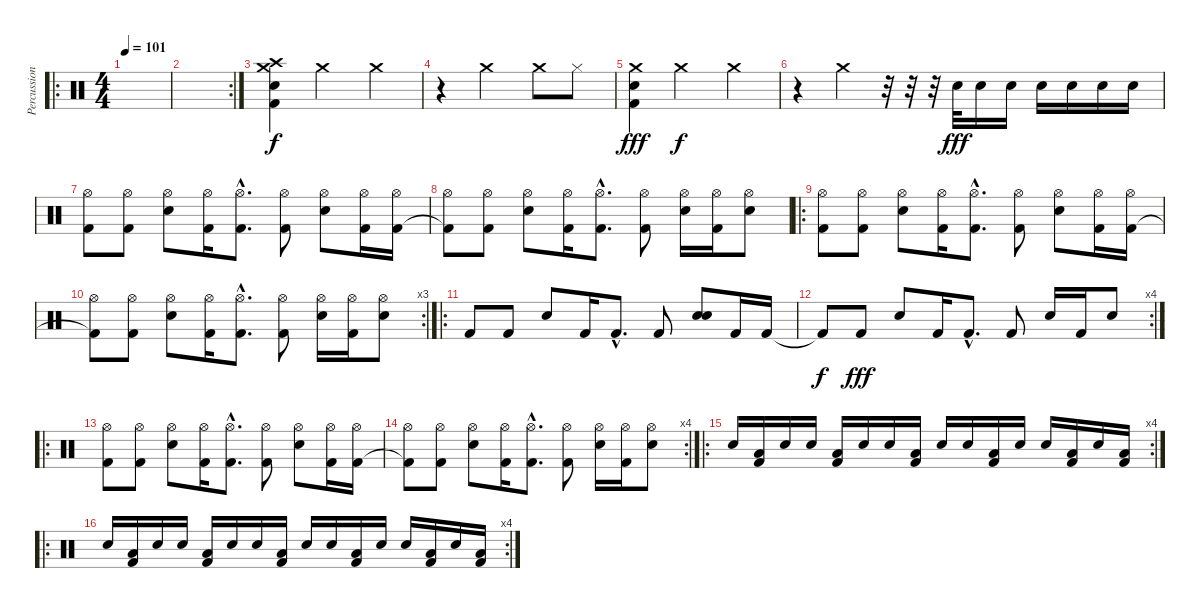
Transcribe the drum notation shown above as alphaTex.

\track ("Percussion" "Percussion") {instrument percussion}
\staff {score}
\articulation defaults
\ro
\ts (4 4)
\tempo 101
\clef neutral
\ks c
|
\rc 2
|
("Crash high (hit)" "Crash medium (hit)" "Snare (hit) 2" "Kick (hit) 2").4 "Crash medium (hit)".2{dy f} "Crash medium (hit)".4 |
r.4 "Crash medium (hit)".2 "Crash medium (hit)".8 "Hi-Hat (closed)".8 |
("Crash medium (hit)" "Snare (hit) 2" "Kick (hit) 2").4{dy fff} "Crash medium (hit)".2{dy f} "Crash medium (hit)".4 |
r.4 "Crash medium (hit)".4 r.32 r.32 r.32 "Snare (hit) 2".32{dy fff} "Snare (hit) 2".16 "Snare (hit) 2".16 "Snare (hit) 2".16 "Snare (hit) 2".16 "Snare (hit) 2".16 "Snare (hit) 2".16 |
("Hi-Hat (open)" "Kick (hit) 2").8 ("Hi-Hat (open)" "Kick (hit) 2").8 ("Hi-Hat (open)" "Snare (hit) 2").8 ("Hi-Hat (open)" "Kick (hit) 2").16 ("Hi-Hat (open)"{hac} "Kick (hit) 2"{hac}).8{d} ("Hi-Hat (open)" "Kick (hit) 2").8 ("Hi-Hat (open)" "Snare (hit) 2").8 ("Hi-Hat (open)" "Kick (hit) 2").16 ("Hi-Hat (open)" "Kick (hit) 2").16 |
("Hi-Hat (open)" "Kick (hit) 2"{t}).8 ("Hi-Hat (open)" "Kick (hit) 2").8 ("Hi-Hat (open)" "Snare (hit) 2").8 ("Hi-Hat (open)" "Kick (hit) 2").16 ("Hi-Hat (open)"{hac} "Kick (hit) 2"{hac}).8{d} ("Hi-Hat (open)" "Kick (hit) 2").8 ("Hi-Hat (open)" "Snare (hit) 2").16 ("Hi-Hat (open)" "Kick (hit) 2").16 ("Hi-Hat (open)" "Snare (hit) 2").8 |
\ro
("Hi-Hat (open)" "Kick (hit) 2").8 ("Hi-Hat (open)" "Kick (hit) 2").8 ("Hi-Hat (open)" "Snare (hit) 2").8 ("Hi-Hat (open)" "Kick (hit) 2").16 ("Hi-Hat (open)"{hac} "Kick (hit) 2"{hac}).8{d} ("Hi-Hat (open)" "Kick (hit) 2").8 ("Hi-Hat (open)" "Snare (hit) 2").8 ("Hi-Hat (open)" "Kick (hit) 2").16 ("Hi-Hat (open)" "Kick (hit) 2").16 |
\rc 3
("Hi-Hat (open)" "Kick (hit) 2"{t}).8 ("Hi-Hat (open)" "Kick (hit) 2").8 ("Hi-Hat (open)" "Snare (hit) 2").8 ("Hi-Hat (open)" "Kick (hit) 2").16 ("Hi-Hat (open)"{hac} "Kick (hit) 2"{hac}).8{d} ("Hi-Hat (open)" "Kick (hit) 2").8 ("Hi-Hat (open)" "Snare (hit) 2").16 ("Hi-Hat (open)" "Kick (hit) 2").16 ("Hi-Hat (open)" "Snare (hit) 2").8 |
\ro "Kick (hit) 2".8 "Kick (hit) 2".8 "Snare (hit) 2".8 "Kick (hit) 2".16 "Kick (hit) 2"{hac}.8{d} "Kick (hit) 2".8
("Snare (hit) 2" "Snare (hit)").8 "Kick (hit) 2".16 "Kick (hit) 2".16 |
\rc 4 "Kick (hit) 2"{t}.8{dy f} "Kick (hit) 2".8{dy fff} "Snare (hit) 2".8 "Kick (hit) 2".16 "Kick (hit) 2"{hac}.8{d} "Kick (hit) 2".8 "Snare (hit) 2".16 "Kick (hit) 2".16 "Snare (hit) 2".8
|
\ro
("Hi-Hat (open)" "Kick (hit) 2").8 ("Hi-Hat (open)" "Kick (hit) 2").8 ("Hi-Hat (open)" "Snare (hit) 2").8 ("Hi-Hat (open)" "Kick (hit) 2").16 ("Hi-Hat (open)"{hac} "Kick (hit) 2"{hac}).8{d} ("Hi-Hat (open)" "Kick (hit) 2").8 ("Hi-Hat (open)" "Snare (hit) 2").8 ("Hi-Hat (open)" "Kick (hit) 2").16 ("Hi-Hat (open)" "Kick (hit) 2").16 |
\rc 4
("Hi-Hat (open)" "Kick (hit) 2"{t}).8 ("Hi-Hat (open)" "Kick (hit) 2").8 ("Hi-Hat (open)" "Snare (hit) 2").8 ("Hi-Hat (open)" "Kick (hit) 2").16 ("Hi-Hat (open)"{hac} "Kick (hit) 2"{hac}).8{d} ("Hi-Hat (open)" "Kick (hit) 2").8 ("Hi-Hat (open)" "Snare (hit) 2").16 ("Hi-Hat (open)" "Kick (hit) 2").16 ("Hi-Hat (open)" "Snare (hit) 2").8 |
\ro
\rc 4 "Snare (hit) 2".16
("Kick (hit) 2" "Low Tom (hit)").16 "Snare (hit) 2".16 "Snare (hit) 2".16 ("Kick (hit) 2" "Low Tom (hit)").16 "Snare (hit) 2".16 "Snare (hit) 2".16 ("Kick (hit) 2" "Low Tom (hit)").16 "Snare (hit) 2".16 "Snare (hit) 2".16 ("Kick (hit) 2" "Low Tom (hit)").16 "Snare (hit) 2".16 "Snare (hit) 2".16 ("Kick (hit) 2" "Low Tom (hit)").16 "Snare (hit) 2".16 ("Kick (hit) 2" "Low Tom (hit)").16 |
\ro
\rc 4 "Snare (hit) 2".16
("Kick (hit) 2" "Low Tom (hit)").16 "Snare (hit) 2".16 "Snare (hit) 2".16 ("Kick (hit) 2" "Low Tom (hit)").16 "Snare (hit) 2".16 "Snare (hit) 2".16 ("Kick (hit) 2" "Low Tom (hit)").16 "Snare (hit) 2".16 "Snare (hit) 2".16 ("Kick (hit) 2" "Low Tom (hit)").16 "Snare (hit) 2".16 "Snare (hit) 2".16 ("Kick (hit) 2" "Low Tom (hit)").16 "Snare (hit) 2".16 ("Kick (hit) 2" "Low Tom (hit)").16
